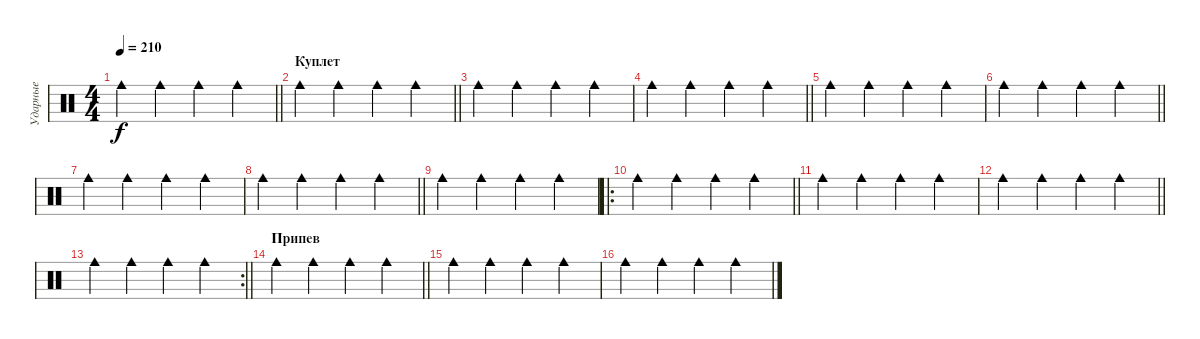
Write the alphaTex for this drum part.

\track ("Ударные" "Ударные") {mute instrument percussion}
\staff {score}
\articulation defaults
\ts (4 4)
\tempo 210
\clef neutral
\barLineRight lightlight
\ks c "Cowbell medium (hit)".4{dy f} "Cowbell medium (hit)".4 "Cowbell medium (hit)".4 "Cowbell medium (hit)".4
|
\section ("" "Куплет")
\barLineRight lightlight "Cowbell medium (hit)".4 "Cowbell medium (hit)".4 "Cowbell medium (hit)".4 "Cowbell medium (hit)".4
|
"Cowbell medium (hit)".4 "Cowbell medium (hit)".4 "Cowbell medium (hit)".4 "Cowbell medium (hit)".4 |
\barLineRight lightlight "Cowbell medium (hit)".4 "Cowbell medium (hit)".4 "Cowbell medium (hit)".4 "Cowbell medium (hit)".4
|
"Cowbell medium (hit)".4 "Cowbell medium (hit)".4 "Cowbell medium (hit)".4 "Cowbell medium (hit)".4 |
\barLineRight lightlight "Cowbell medium (hit)".4 "Cowbell medium (hit)".4 "Cowbell medium (hit)".4 "Cowbell medium (hit)".4
|
"Cowbell medium (hit)".4 "Cowbell medium (hit)".4 "Cowbell medium (hit)".4 "Cowbell medium (hit)".4 |
\barLineRight lightlight "Cowbell medium (hit)".4 "Cowbell medium (hit)".4 "Cowbell medium (hit)".4 "Cowbell medium (hit)".4
|
"Cowbell medium (hit)".4 "Cowbell medium (hit)".4 "Cowbell medium (hit)".4 "Cowbell medium (hit)".4 |
\ro
\barLineRight lightlight "Cowbell medium (hit)".4 "Cowbell medium (hit)".4 "Cowbell medium (hit)".4 "Cowbell medium (hit)".4
|
"Cowbell medium (hit)".4 "Cowbell medium (hit)".4 "Cowbell medium (hit)".4 "Cowbell medium (hit)".4 |
\barLineRight lightlight "Cowbell medium (hit)".4 "Cowbell medium (hit)".4 "Cowbell medium (hit)".4 "Cowbell medium (hit)".4
|
\rc 2
\barLineRight lightlight "Cowbell medium (hit)".4 "Cowbell medium (hit)".4 "Cowbell medium (hit)".4 "Cowbell medium (hit)".4
|
\section ("" "Припев")
\barLineRight lightlight "Cowbell medium (hit)".4 "Cowbell medium (hit)".4 "Cowbell medium (hit)".4 "Cowbell medium (hit)".4
|
"Cowbell medium (hit)".4 "Cowbell medium (hit)".4 "Cowbell medium (hit)".4 "Cowbell medium (hit)".4 |
"Cowbell medium (hit)".4 "Cowbell medium (hit)".4 "Cowbell medium (hit)".4 "Cowbell medium (hit)".4
